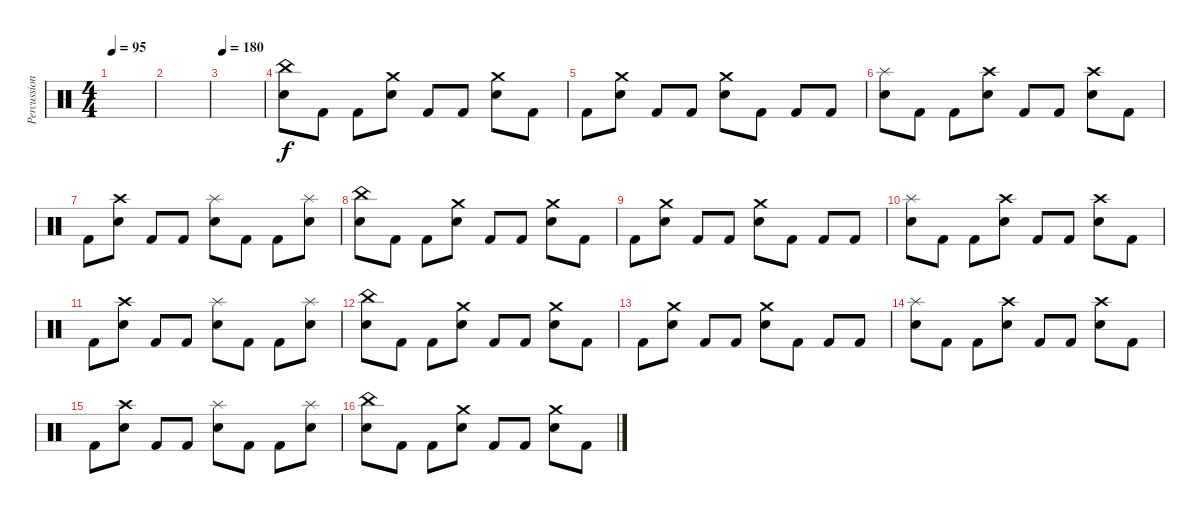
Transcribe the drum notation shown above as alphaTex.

\track ("Percussion" "Percussion") {instrument percussion}
\staff {score}
\articulation defaults
\ts (4 4)
\tempo 95
\clef neutral
\ks c
|
|
\tempo 180
|
("Snare (hit) 2" "China (hit)").8 "Kick (hit) 2".8 "Kick (hit) 2".8 ("Snare (hit) 2" "Crash medium (hit)").8 "Kick (hit) 2".8 "Kick (hit) 2".8 ("Snare (hit) 2" "Crash medium (hit)").8 "Kick (hit) 2".8 |
"Kick (hit) 2".8 ("Snare (hit) 2" "Crash medium (hit)").8 "Kick (hit) 2".8 "Kick (hit) 2".8 ("Snare (hit) 2" "Crash medium (hit)").8 "Kick (hit) 2".8 "Kick (hit) 2".8 "Kick (hit) 2".8 |
("Snare (hit) 2" "Splash (hit)").8 "Kick (hit) 2".8 "Kick (hit) 2".8 ("Snare (hit) 2" "Crash high (hit)").8 "Kick (hit) 2".8 "Kick (hit) 2".8 ("Snare (hit) 2" "Crash high (hit)").8 "Kick (hit) 2".8 |
"Kick (hit) 2".8 ("Snare (hit) 2" "Crash high (hit)").8 "Kick (hit) 2".8 "Kick (hit) 2".8 ("Snare (hit) 2" "Splash (hit)").8 "Kick (hit) 2".8 "Kick (hit) 2".8 ("Snare (hit) 2" "Splash (hit)").8 |
("Snare (hit) 2" "China (hit)").8 "Kick (hit) 2".8 "Kick (hit) 2".8 ("Snare (hit) 2" "Crash medium (hit)").8 "Kick (hit) 2".8 "Kick (hit) 2".8 ("Snare (hit) 2" "Crash medium (hit)").8 "Kick (hit) 2".8 |
"Kick (hit) 2".8 ("Snare (hit) 2" "Crash medium (hit)").8 "Kick (hit) 2".8 "Kick (hit) 2".8 ("Snare (hit) 2" "Crash medium (hit)").8 "Kick (hit) 2".8 "Kick (hit) 2".8 "Kick (hit) 2".8 |
("Snare (hit) 2" "Splash (hit)").8 "Kick (hit) 2".8 "Kick (hit) 2".8 ("Snare (hit) 2" "Crash high (hit)").8 "Kick (hit) 2".8 "Kick (hit) 2".8 ("Snare (hit) 2" "Crash high (hit)").8 "Kick (hit) 2".8 |
"Kick (hit) 2".8 ("Snare (hit) 2" "Crash high (hit)").8 "Kick (hit) 2".8 "Kick (hit) 2".8 ("Snare (hit) 2" "Splash (hit)").8 "Kick (hit) 2".8 "Kick (hit) 2".8 ("Snare (hit) 2" "Splash (hit)").8 |
("Snare (hit) 2" "China (hit)").8 "Kick (hit) 2".8 "Kick (hit) 2".8 ("Snare (hit) 2" "Crash medium (hit)").8 "Kick (hit) 2".8 "Kick (hit) 2".8 ("Snare (hit) 2" "Crash medium (hit)").8 "Kick (hit) 2".8 |
"Kick (hit) 2".8 ("Snare (hit) 2" "Crash medium (hit)").8 "Kick (hit) 2".8 "Kick (hit) 2".8 ("Snare (hit) 2" "Crash medium (hit)").8 "Kick (hit) 2".8 "Kick (hit) 2".8 "Kick (hit) 2".8 |
("Snare (hit) 2" "Splash (hit)").8 "Kick (hit) 2".8 "Kick (hit) 2".8 ("Snare (hit) 2" "Crash high (hit)").8 "Kick (hit) 2".8 "Kick (hit) 2".8 ("Snare (hit) 2" "Crash high (hit)").8 "Kick (hit) 2".8 |
"Kick (hit) 2".8 ("Snare (hit) 2" "Crash high (hit)").8 "Kick (hit) 2".8 "Kick (hit) 2".8 ("Snare (hit) 2" "Splash (hit)").8 "Kick (hit) 2".8 "Kick (hit) 2".8 ("Snare (hit) 2" "Splash (hit)").8 |
("Snare (hit) 2" "China (hit)").8 "Kick (hit) 2".8 "Kick (hit) 2".8 ("Snare (hit) 2" "Crash medium (hit)").8 "Kick (hit) 2".8 "Kick (hit) 2".8 ("Snare (hit) 2" "Crash medium (hit)").8 "Kick (hit) 2".8
